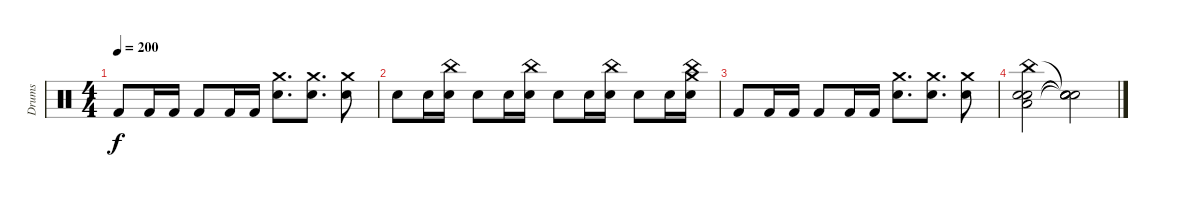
\track ("Drums" "Drums") {instrument percussion}
\staff {score}
\articulation defaults
\ts (4 4)
\tempo 200
\clef neutral
\ks c "Kick (hit) 2".8{dy f} "Kick (hit) 2".16 "Kick (hit) 2".16 "Kick (hit) 2".8 "Kick (hit) 2".16 "Kick (hit) 2".16
("Snare (hit) 2" "Crash medium (hit)").8{d} ("Snare (hit) 2" "Crash medium (hit)").8{d} ("Snare (hit) 2" "Crash medium (hit)").8 |
"Snare (hit) 2".8 "Snare (hit) 2".16 ("Snare (hit) 2" "China (hit)").16 "Snare (hit) 2".8 "Snare (hit) 2".16 ("Snare (hit) 2" "China (hit)").16 "Snare (hit) 2".8 "Snare (hit) 2".16 ("Snare (hit) 2" "China (hit)").16 "Snare (hit) 2".8 "Snare (hit) 2".16 ("Snare (hit) 2" "Crash medium (hit)" "China (hit)").16 |
"Kick (hit) 2".8 "Kick (hit) 2".16 "Kick (hit) 2".16 "Kick (hit) 2".8 "Kick (hit) 2".16 "Kick (hit) 2".16 ("Snare (hit) 2" "Crash medium (hit)").8{d} ("Snare (hit) 2" "Crash medium (hit)").8{d} ("Snare (hit) 2" "Crash medium (hit)").8 |
("Electric Snare (hit)" "Snare (hit) 2" "Low Floor Tom (hit)" "China (hit)").2 ("Snare (hit)"{t} "Snare (hit)"{t} "Snare (hit)"{t} "Snare (hit)"{t}).2
